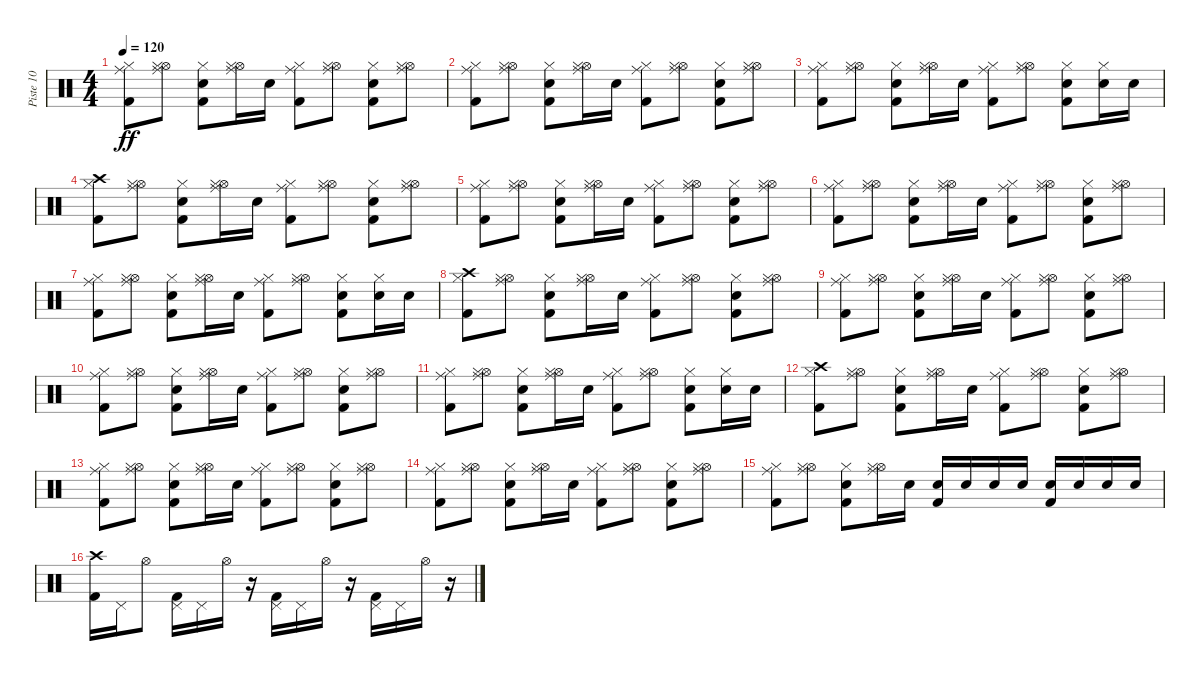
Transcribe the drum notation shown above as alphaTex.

\track ("Piste 10" "Piste 10") {instrument percussion}
\staff {score}
\articulation defaults
\ts (4 4)
\tempo 120
\clef neutral
\ks c
("Kick (hit) 2" "Ride (middle)" "Hi-Hat (closed)").8{dy ff} ("Ride (middle)" "Hi-Hat (open)" "Hi-Hat (closed)").8 ("Kick (hit) 2" "Snare (hit) 2" "Hi-Hat (closed)").8 ("Ride (middle)" "Hi-Hat (open)" "Hi-Hat (closed)").16 "Snare (hit) 2".16 ("Kick (hit) 2" "Ride (middle)" "Hi-Hat (closed)").8 ("Ride (middle)" "Hi-Hat (open)" "Hi-Hat (closed)").8 ("Kick (hit) 2" "Snare (hit) 2" "Hi-Hat (closed)").8 ("Ride (middle)" "Hi-Hat (open)" "Hi-Hat (closed)").8 |
("Kick (hit) 2" "Ride (middle)" "Hi-Hat (closed)").8 ("Ride (middle)" "Hi-Hat (open)" "Hi-Hat (closed)").8 ("Kick (hit) 2" "Snare (hit) 2" "Hi-Hat (closed)").8 ("Ride (middle)" "Hi-Hat (open)" "Hi-Hat (closed)").16 "Snare (hit) 2".16 ("Kick (hit) 2" "Ride (middle)" "Hi-Hat (closed)").8 ("Ride (middle)" "Hi-Hat (open)" "Hi-Hat (closed)").8 ("Kick (hit) 2" "Snare (hit) 2" "Hi-Hat (closed)").8 ("Ride (middle)" "Hi-Hat (open)" "Hi-Hat (closed)").8 |
("Kick (hit) 2" "Ride (middle)" "Hi-Hat (closed)").8 ("Ride (middle)" "Hi-Hat (open)" "Hi-Hat (closed)").8 ("Kick (hit) 2" "Snare (hit) 2" "Hi-Hat (closed)").8 ("Ride (middle)" "Hi-Hat (open)" "Hi-Hat (closed)").16 "Snare (hit) 2".16 ("Kick (hit) 2" "Ride (middle)" "Hi-Hat (closed)").8 ("Ride (middle)" "Hi-Hat (open)" "Hi-Hat (closed)").8 ("Kick (hit) 2" "Snare (hit) 2" "Hi-Hat (closed)").8 ("Snare (hit) 2" "Hi-Hat (closed)").16 "Snare (hit) 2".16 |
("Kick (hit) 2" "Crash high (hit)" "Hi-Hat (closed)").8 ("Ride (middle)" "Hi-Hat (open)" "Hi-Hat (closed)").8 ("Kick (hit) 2" "Snare (hit) 2" "Hi-Hat (closed)").8 ("Ride (middle)" "Hi-Hat (open)" "Hi-Hat (closed)").16 "Snare (hit) 2".16 ("Kick (hit) 2" "Ride (middle)" "Hi-Hat (closed)").8 ("Ride (middle)" "Hi-Hat (open)" "Hi-Hat (closed)").8 ("Kick (hit) 2" "Snare (hit) 2" "Hi-Hat (closed)").8 ("Ride (middle)" "Hi-Hat (open)" "Hi-Hat (closed)").8 |
("Kick (hit) 2" "Ride (middle)" "Hi-Hat (closed)").8 ("Ride (middle)" "Hi-Hat (open)" "Hi-Hat (closed)").8 ("Kick (hit) 2" "Snare (hit) 2" "Hi-Hat (closed)").8 ("Ride (middle)" "Hi-Hat (open)" "Hi-Hat (closed)").16 "Snare (hit) 2".16 ("Kick (hit) 2" "Ride (middle)" "Hi-Hat (closed)").8 ("Ride (middle)" "Hi-Hat (open)" "Hi-Hat (closed)").8 ("Kick (hit) 2" "Snare (hit) 2" "Hi-Hat (closed)").8 ("Ride (middle)" "Hi-Hat (open)" "Hi-Hat (closed)").8 |
("Kick (hit) 2" "Ride (middle)" "Hi-Hat (closed)").8 ("Ride (middle)" "Hi-Hat (open)" "Hi-Hat (closed)").8 ("Kick (hit) 2" "Snare (hit) 2" "Hi-Hat (closed)").8 ("Ride (middle)" "Hi-Hat (open)" "Hi-Hat (closed)").16 "Snare (hit) 2".16 ("Kick (hit) 2" "Ride (middle)" "Hi-Hat (closed)").8 ("Ride (middle)" "Hi-Hat (open)" "Hi-Hat (closed)").8 ("Kick (hit) 2" "Snare (hit) 2" "Hi-Hat (closed)").8 ("Ride (middle)" "Hi-Hat (open)" "Hi-Hat (closed)").8 |
("Kick (hit) 2" "Ride (middle)" "Hi-Hat (closed)").8 ("Ride (middle)" "Hi-Hat (open)" "Hi-Hat (closed)").8 ("Kick (hit) 2" "Snare (hit) 2" "Hi-Hat (closed)").8 ("Ride (middle)" "Hi-Hat (open)" "Hi-Hat (closed)").16 "Snare (hit) 2".16 ("Kick (hit) 2" "Ride (middle)" "Hi-Hat (closed)").8 ("Ride (middle)" "Hi-Hat (open)" "Hi-Hat (closed)").8 ("Kick (hit) 2" "Snare (hit) 2" "Hi-Hat (closed)").8 ("Snare (hit) 2" "Hi-Hat (closed)").16 "Snare (hit) 2".16 |
("Kick (hit) 2" "Crash high (hit)" "Hi-Hat (closed)").8 ("Ride (middle)" "Hi-Hat (open)" "Hi-Hat (closed)").8 ("Kick (hit) 2" "Snare (hit) 2" "Hi-Hat (closed)").8 ("Ride (middle)" "Hi-Hat (open)" "Hi-Hat (closed)").16 "Snare (hit) 2".16 ("Kick (hit) 2" "Ride (middle)" "Hi-Hat (closed)").8 ("Ride (middle)" "Hi-Hat (open)" "Hi-Hat (closed)").8 ("Kick (hit) 2" "Snare (hit) 2" "Hi-Hat (closed)").8 ("Ride (middle)" "Hi-Hat (open)" "Hi-Hat (closed)").8 |
("Kick (hit) 2" "Ride (middle)" "Hi-Hat (closed)").8 ("Ride (middle)" "Hi-Hat (open)" "Hi-Hat (closed)").8 ("Kick (hit) 2" "Snare (hit) 2" "Hi-Hat (closed)").8 ("Ride (middle)" "Hi-Hat (open)" "Hi-Hat (closed)").16 "Snare (hit) 2".16 ("Kick (hit) 2" "Ride (middle)" "Hi-Hat (closed)").8 ("Ride (middle)" "Hi-Hat (open)" "Hi-Hat (closed)").8 ("Kick (hit) 2" "Snare (hit) 2" "Hi-Hat (closed)").8 ("Ride (middle)" "Hi-Hat (open)" "Hi-Hat (closed)").8 |
("Kick (hit) 2" "Ride (middle)" "Hi-Hat (closed)").8 ("Ride (middle)" "Hi-Hat (open)" "Hi-Hat (closed)").8 ("Kick (hit) 2" "Snare (hit) 2" "Hi-Hat (closed)").8 ("Ride (middle)" "Hi-Hat (open)" "Hi-Hat (closed)").16 "Snare (hit) 2".16 ("Kick (hit) 2" "Ride (middle)" "Hi-Hat (closed)").8 ("Ride (middle)" "Hi-Hat (open)" "Hi-Hat (closed)").8 ("Kick (hit) 2" "Snare (hit) 2" "Hi-Hat (closed)").8 ("Ride (middle)" "Hi-Hat (open)" "Hi-Hat (closed)").8 |
("Kick (hit) 2" "Ride (middle)" "Hi-Hat (closed)").8 ("Ride (middle)" "Hi-Hat (open)" "Hi-Hat (closed)").8 ("Kick (hit) 2" "Snare (hit) 2" "Hi-Hat (closed)").8 ("Ride (middle)" "Hi-Hat (open)" "Hi-Hat (closed)").16 "Snare (hit) 2".16 ("Kick (hit) 2" "Ride (middle)" "Hi-Hat (closed)").8 ("Ride (middle)" "Hi-Hat (open)" "Hi-Hat (closed)").8 ("Kick (hit) 2" "Snare (hit) 2" "Hi-Hat (closed)").8 ("Snare (hit) 2" "Hi-Hat (closed)").16 "Snare (hit) 2".16 |
("Kick (hit) 2" "Crash high (hit)" "Hi-Hat (closed)").8 ("Ride (middle)" "Hi-Hat (open)" "Hi-Hat (closed)").8 ("Kick (hit) 2" "Snare (hit) 2" "Hi-Hat (closed)").8 ("Ride (middle)" "Hi-Hat (open)" "Hi-Hat (closed)").16 "Snare (hit) 2".16 ("Kick (hit) 2" "Ride (middle)" "Hi-Hat (closed)").8 ("Ride (middle)" "Hi-Hat (open)" "Hi-Hat (closed)").8 ("Kick (hit) 2" "Snare (hit) 2" "Hi-Hat (closed)").8 ("Ride (middle)" "Hi-Hat (open)" "Hi-Hat (closed)").8 |
("Kick (hit) 2" "Ride (middle)" "Hi-Hat (closed)").8 ("Ride (middle)" "Hi-Hat (open)" "Hi-Hat (closed)").8 ("Kick (hit) 2" "Snare (hit) 2" "Hi-Hat (closed)").8 ("Ride (middle)" "Hi-Hat (open)" "Hi-Hat (closed)").16 "Snare (hit) 2".16 ("Kick (hit) 2" "Ride (middle)" "Hi-Hat (closed)").8 ("Ride (middle)" "Hi-Hat (open)" "Hi-Hat (closed)").8 ("Kick (hit) 2" "Snare (hit) 2" "Hi-Hat (closed)").8 ("Ride (middle)" "Hi-Hat (open)" "Hi-Hat (closed)").8 |
("Kick (hit) 2" "Ride (middle)" "Hi-Hat (closed)").8 ("Ride (middle)" "Hi-Hat (open)" "Hi-Hat (closed)").8 ("Kick (hit) 2" "Snare (hit) 2" "Hi-Hat (closed)").8 ("Ride (middle)" "Hi-Hat (open)" "Hi-Hat (closed)").16 "Snare (hit) 2".16 ("Kick (hit) 2" "Ride (middle)" "Hi-Hat (closed)").8 ("Ride (middle)" "Hi-Hat (open)" "Hi-Hat (closed)").8 ("Kick (hit) 2" "Snare (hit) 2" "Hi-Hat (closed)").8 ("Ride (middle)" "Hi-Hat (open)" "Hi-Hat (closed)").8 |
("Kick (hit) 2" "Ride (middle)" "Hi-Hat (closed)").8 ("Ride (middle)" "Hi-Hat (open)" "Hi-Hat (closed)").8 ("Kick (hit) 2" "Snare (hit) 2" "Hi-Hat (closed)").8 ("Ride (middle)" "Hi-Hat (open)" "Hi-Hat (closed)").16 "Snare (hit) 2".16 ("Kick (hit) 2" "Snare (hit) 2").16 "Snare (hit) 2".16 "Snare (hit) 2".16 "Snare (hit) 2".16 ("Kick (hit) 2" "Snare (hit) 2").16 "Snare (hit) 2".16 "Snare (hit) 2".16 "Snare (hit) 2".16 |
("Crash high (hit)" "Kick (hit) 2").16 "Pedal Hi-Hat (hit)".16 "Hi-Hat (open)".8 ("Kick (hit) 2" "Pedal Hi-Hat (hit)").16 "Pedal Hi-Hat (hit)".16 "Hi-Hat (open)".16 r.16 ("Kick (hit) 2" "Pedal Hi-Hat (hit)").16 "Pedal Hi-Hat (hit)".16 "Hi-Hat (open)".16 r.16 ("Kick (hit) 2" "Pedal Hi-Hat (hit)").16 "Pedal Hi-Hat (hit)".16 "Hi-Hat (open)".16 r.16
